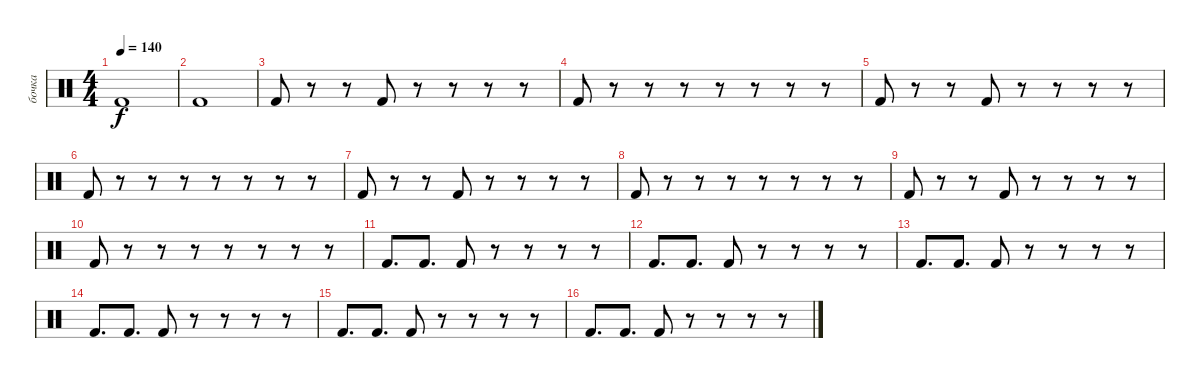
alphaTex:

\track ("бочка" "бочка") {mute instrument percussion}
\staff {score}
\articulation defaults
\ts (4 4)
\tempo 140
\clef neutral
\ks c "Kick (hit) 2".1{dy f}
|
"Kick (hit) 2".1 |
"Kick (hit) 2".8 r.8 r.8 "Kick (hit) 2".8 r.8 r.8 r.8 r.8 |
"Kick (hit) 2".8 r.8 r.8 r.8 r.8 r.8 r.8 r.8 |
"Kick (hit) 2".8 r.8 r.8 "Kick (hit) 2".8 r.8 r.8 r.8 r.8 |
"Kick (hit) 2".8 r.8 r.8 r.8 r.8 r.8 r.8 r.8 |
"Kick (hit) 2".8 r.8 r.8 "Kick (hit) 2".8 r.8 r.8 r.8 r.8 |
"Kick (hit) 2".8 r.8 r.8 r.8 r.8 r.8 r.8 r.8 |
"Kick (hit) 2".8 r.8 r.8 "Kick (hit) 2".8 r.8 r.8 r.8 r.8 |
"Kick (hit) 2".8 r.8 r.8 r.8 r.8 r.8 r.8 r.8 |
"Kick (hit) 2".8{d} "Kick (hit) 2".8{d} "Kick (hit) 2".8 r.8 r.8 r.8 r.8 |
"Kick (hit) 2".8{d} "Kick (hit) 2".8{d} "Kick (hit) 2".8 r.8 r.8 r.8 r.8 |
"Kick (hit) 2".8{d} "Kick (hit) 2".8{d} "Kick (hit) 2".8 r.8 r.8 r.8 r.8 |
"Kick (hit) 2".8{d} "Kick (hit) 2".8{d} "Kick (hit) 2".8 r.8 r.8 r.8 r.8 |
"Kick (hit) 2".8{d} "Kick (hit) 2".8{d} "Kick (hit) 2".8 r.8 r.8 r.8 r.8 |
"Kick (hit) 2".8{d} "Kick (hit) 2".8{d} "Kick (hit) 2".8 r.8 r.8 r.8 r.8
